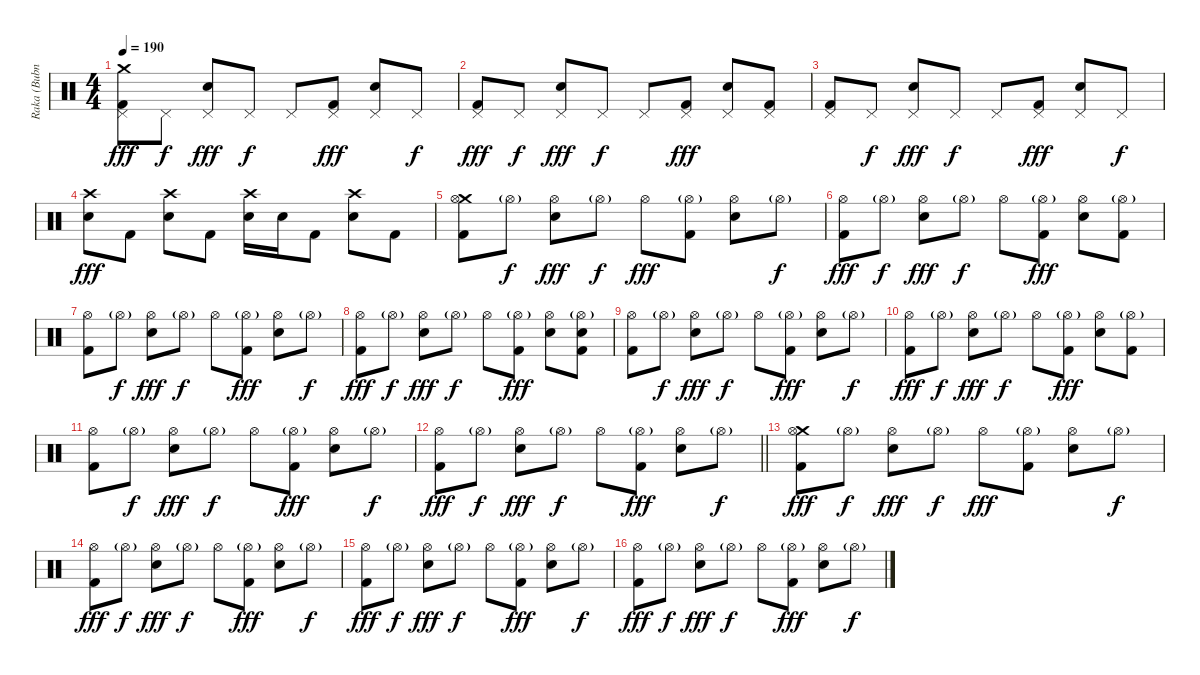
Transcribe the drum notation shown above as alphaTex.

\track ("Raka (Bubnjevi)" "Raka (Bubn") {instrument percussion}
\staff {score}
\articulation defaults
\ts (4 4)
\tempo 190
\clef neutral
\ks c
("Crash medium (hit)" "Pedal Hi-Hat (hit)" "Kick (hit) 2").8{dy fff} "Pedal Hi-Hat (hit)".8{dy f} ("Pedal Hi-Hat (hit)" "Snare (hit) 2").8{dy fff} "Pedal Hi-Hat (hit)".8{dy f} "Pedal Hi-Hat (hit)".8 ("Pedal Hi-Hat (hit)" "Kick (hit) 2").8{dy fff} ("Pedal Hi-Hat (hit)" "Snare (hit) 2").8 "Pedal Hi-Hat (hit)".8{dy f} |
("Pedal Hi-Hat (hit)" "Kick (hit) 2").8{dy fff} "Pedal Hi-Hat (hit)".8{dy f} ("Pedal Hi-Hat (hit)" "Snare (hit) 2").8{dy fff} "Pedal Hi-Hat (hit)".8{dy f} "Pedal Hi-Hat (hit)".8 ("Pedal Hi-Hat (hit)" "Kick (hit) 2").8{dy fff} ("Pedal Hi-Hat (hit)" "Snare (hit) 2").8 ("Pedal Hi-Hat (hit)" "Kick (hit) 2").8 |
("Pedal Hi-Hat (hit)" "Kick (hit) 2").8 "Pedal Hi-Hat (hit)".8{dy f} ("Pedal Hi-Hat (hit)" "Snare (hit) 2").8{dy fff} "Pedal Hi-Hat (hit)".8{dy f} "Pedal Hi-Hat (hit)".8 ("Pedal Hi-Hat (hit)" "Kick (hit) 2").8{dy fff} ("Pedal Hi-Hat (hit)" "Snare (hit) 2").8 "Pedal Hi-Hat (hit)".8{dy f} |
("Crash high (hit)" "Snare (hit) 2").8{dy fff} "Kick (hit) 2".8 ("Crash high (hit)" "Snare (hit) 2").8 "Kick (hit) 2".8 ("Crash high (hit)" "Snare (hit) 2").16 "Snare (hit) 2".16 "Kick (hit) 2".8 ("Crash high (hit)" "Snare (hit) 2").8 "Kick (hit) 2".8 |
("Crash medium (hit)" "Hi-Hat (open)" "Kick (hit) 2").8 "Hi-Hat (open)"{g}.8{dy f} ("Hi-Hat (open)" "Snare (hit) 2").8{dy fff} "Hi-Hat (open)"{g}.8{dy f} "Hi-Hat (open)".8{dy fff} ("Hi-Hat (open)"{g} "Kick (hit) 2").8 ("Hi-Hat (open)" "Snare (hit) 2").8 "Hi-Hat (open)"{g}.8{dy f} |
("Hi-Hat (open)" "Kick (hit) 2").8{dy fff} "Hi-Hat (open)"{g}.8{dy f} ("Hi-Hat (open)" "Snare (hit) 2").8{dy fff} "Hi-Hat (open)"{g}.8{dy f} "Hi-Hat (open)".8 ("Hi-Hat (open)"{g} "Kick (hit) 2").8{dy fff} ("Hi-Hat (open)" "Snare (hit) 2").8 ("Hi-Hat (open)"{g} "Kick (hit) 2").8 |
("Hi-Hat (open)" "Kick (hit) 2").8 "Hi-Hat (open)"{g}.8{dy f} ("Hi-Hat (open)" "Snare (hit) 2").8{dy fff} "Hi-Hat (open)"{g}.8{dy f} "Hi-Hat (open)".8 ("Hi-Hat (open)"{g} "Kick (hit) 2").8{dy fff} ("Hi-Hat (open)" "Snare (hit) 2").8 "Hi-Hat (open)"{g}.8{dy f} |
("Hi-Hat (open)" "Kick (hit) 2").8{dy fff} "Hi-Hat (open)"{g}.8{dy f} ("Hi-Hat (open)" "Snare (hit) 2").8{dy fff} "Hi-Hat (open)"{g}.8{dy f} "Hi-Hat (open)".8 ("Hi-Hat (open)"{g} "Kick (hit) 2").8{dy fff} ("Hi-Hat (open)" "Snare (hit) 2").8 ("Hi-Hat (open)"{g} "Snare (hit) 2" "Kick (hit) 2").8 |
("Hi-Hat (open)" "Kick (hit) 2").8 "Hi-Hat (open)"{g}.8{dy f} ("Hi-Hat (open)" "Snare (hit) 2").8{dy fff} "Hi-Hat (open)"{g}.8{dy f} "Hi-Hat (open)".8 ("Hi-Hat (open)"{g} "Kick (hit) 2").8{dy fff} ("Hi-Hat (open)" "Snare (hit) 2").8 "Hi-Hat (open)"{g}.8{dy f} |
("Hi-Hat (open)" "Kick (hit) 2").8{dy fff} "Hi-Hat (open)"{g}.8{dy f} ("Hi-Hat (open)" "Snare (hit) 2").8{dy fff} "Hi-Hat (open)"{g}.8{dy f} "Hi-Hat (open)".8 ("Hi-Hat (open)"{g} "Kick (hit) 2").8{dy fff} ("Hi-Hat (open)" "Snare (hit) 2").8 ("Hi-Hat (open)"{g} "Kick (hit) 2").8 |
("Hi-Hat (open)" "Kick (hit) 2").8 "Hi-Hat (open)"{g}.8{dy f} ("Hi-Hat (open)" "Snare (hit) 2").8{dy fff} "Hi-Hat (open)"{g}.8{dy f} "Hi-Hat (open)".8 ("Hi-Hat (open)"{g} "Kick (hit) 2").8{dy fff} ("Hi-Hat (open)" "Snare (hit) 2").8 "Hi-Hat (open)"{g}.8{dy f} |
\barLineRight lightlight
("Hi-Hat (open)" "Kick (hit) 2").8{dy fff} "Hi-Hat (open)"{g}.8{dy f} ("Hi-Hat (open)" "Snare (hit) 2").8{dy fff} "Hi-Hat (open)"{g}.8{dy f} "Hi-Hat (open)".8 ("Hi-Hat (open)"{g} "Kick (hit) 2").8{dy fff} ("Hi-Hat (open)" "Snare (hit) 2").8 "Hi-Hat (open)"{g}.8{dy f} |
("Crash medium (hit)" "Hi-Hat (open)" "Kick (hit) 2").8{dy fff} "Hi-Hat (open)"{g}.8{dy f} ("Hi-Hat (open)" "Snare (hit) 2").8{dy fff} "Hi-Hat (open)"{g}.8{dy f} "Hi-Hat (open)".8{dy fff} ("Hi-Hat (open)"{g} "Kick (hit) 2").8 ("Hi-Hat (open)" "Snare (hit) 2").8 "Hi-Hat (open)"{g}.8{dy f} |
("Hi-Hat (open)" "Kick (hit) 2").8{dy fff} "Hi-Hat (open)"{g}.8{dy f} ("Hi-Hat (open)" "Snare (hit) 2").8{dy fff} "Hi-Hat (open)"{g}.8{dy f} "Hi-Hat (open)".8 ("Hi-Hat (open)"{g} "Kick (hit) 2").8{dy fff} ("Hi-Hat (open)" "Snare (hit) 2").8 "Hi-Hat (open)"{g}.8{dy f} |
("Hi-Hat (open)" "Kick (hit) 2").8{dy fff} "Hi-Hat (open)"{g}.8{dy f} ("Hi-Hat (open)" "Snare (hit) 2").8{dy fff} "Hi-Hat (open)"{g}.8{dy f} "Hi-Hat (open)".8 ("Hi-Hat (open)"{g} "Kick (hit) 2").8{dy fff} ("Hi-Hat (open)" "Snare (hit) 2").8 "Hi-Hat (open)"{g}.8{dy f} |
("Hi-Hat (open)" "Kick (hit) 2").8{dy fff} "Hi-Hat (open)"{g}.8{dy f} ("Hi-Hat (open)" "Snare (hit) 2").8{dy fff} "Hi-Hat (open)"{g}.8{dy f} "Hi-Hat (open)".8 ("Hi-Hat (open)"{g} "Kick (hit) 2").8{dy fff} ("Hi-Hat (open)" "Snare (hit) 2").8 "Hi-Hat (open)"{g}.8{dy f}
